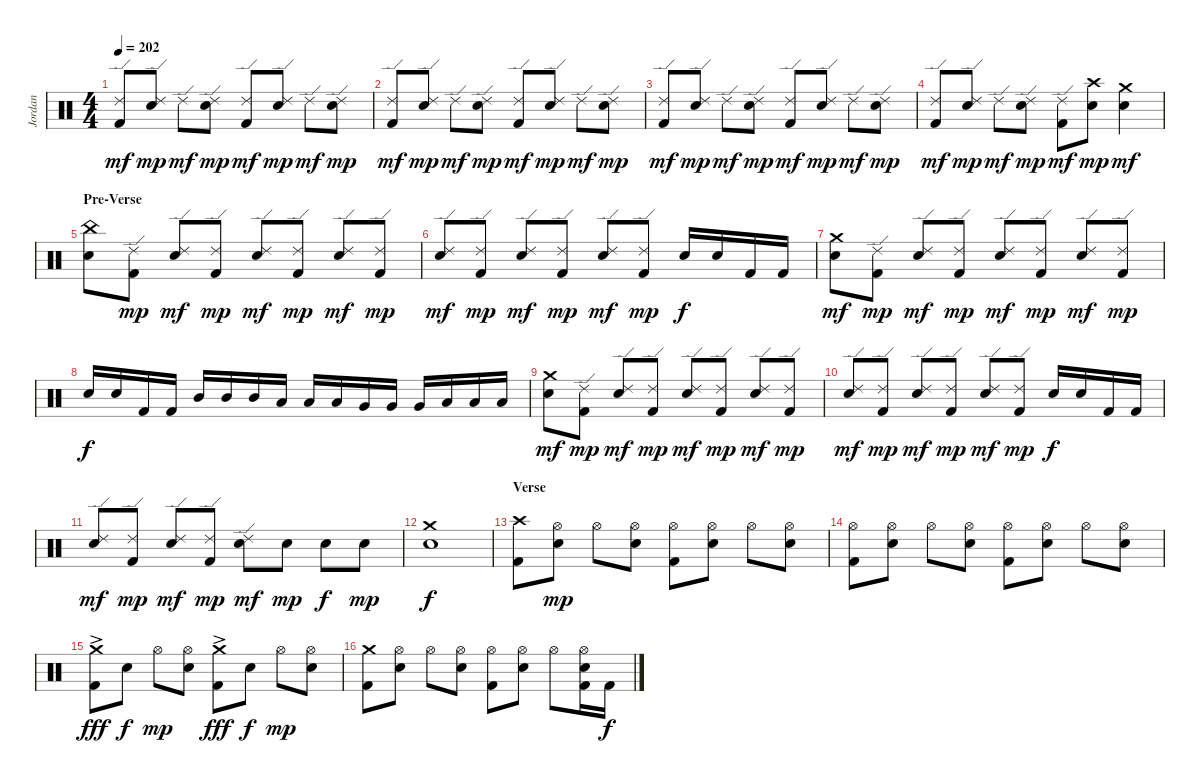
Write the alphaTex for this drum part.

\track ("Jordan" "Jordan") {instrument percussion}
\staff {score}
\articulation defaults
\ts (4 4)
\tempo 202
\clef neutral
\ks c
("Ride (edge) 2" "Kick (hit) 2").8{dy mf} ("Ride (edge) 2" "Electric Snare (hit)").8{dy mp} "Ride (edge) 2".8{dy mf} ("Ride (edge) 2" "Electric Snare (hit)").8{dy mp} ("Ride (edge) 2" "Kick (hit) 2").8{dy mf} ("Ride (edge) 2" "Electric Snare (hit)").8{dy mp} "Ride (edge) 2".8{dy mf} ("Ride (edge) 2" "Electric Snare (hit)").8{dy mp} |
("Ride (edge) 2" "Kick (hit) 2").8{dy mf} ("Ride (edge) 2" "Electric Snare (hit)").8{dy mp} "Ride (edge) 2".8{dy mf} ("Ride (edge) 2" "Electric Snare (hit)").8{dy mp} ("Ride (edge) 2" "Kick (hit) 2").8{dy mf} ("Ride (edge) 2" "Electric Snare (hit)").8{dy mp} "Ride (edge) 2".8{dy mf} ("Ride (edge) 2" "Electric Snare (hit)").8{dy mp} |
("Ride (edge) 2" "Kick (hit) 2").8{dy mf} ("Ride (edge) 2" "Electric Snare (hit)").8{dy mp} "Ride (edge) 2".8{dy mf} ("Ride (edge) 2" "Electric Snare (hit)").8{dy mp} ("Ride (edge) 2" "Kick (hit) 2").8{dy mf} ("Ride (edge) 2" "Electric Snare (hit)").8{dy mp} "Ride (edge) 2".8{dy mf} ("Ride (edge) 2" "Electric Snare (hit)").8{dy mp} |
("Ride (edge) 2" "Kick (hit) 2").8{dy mf} ("Ride (edge) 2" "Electric Snare (hit)").8{dy mp} "Ride (edge) 2".8{dy mf} ("Ride (edge) 2" "Electric Snare (hit)").8{dy mp} ("Ride (edge) 2" "Kick (hit) 2").8{dy mf} ("Crash high (hit)" "Electric Snare (hit)").8{dy mp} ("Crash medium (hit)" "Electric Snare (hit)").4{dy mf} |
\section ("" "Pre-Verse")
("China (hit)" "Electric Snare (hit)").8 ("Ride (edge) 2" "Kick (hit) 2").8{dy mp} ("Ride (edge) 2" "Electric Snare (hit)").8{dy mf} ("Ride (edge) 2" "Kick (hit) 2").8{dy mp} ("Ride (edge) 2" "Electric Snare (hit)").8{dy mf} ("Ride (edge) 2" "Kick (hit) 2").8{dy mp} ("Ride (edge) 2" "Electric Snare (hit)").8{dy mf} ("Ride (edge) 2" "Kick (hit) 2").8{dy mp} |
("Ride (edge) 2" "Electric Snare (hit)").8{dy mf} ("Ride (edge) 2" "Kick (hit) 2").8{dy mp} ("Ride (edge) 2" "Electric Snare (hit)").8{dy mf} ("Ride (edge) 2" "Kick (hit) 2").8{dy mp} ("Ride (edge) 2" "Electric Snare (hit)").8{dy mf} ("Ride (edge) 2" "Kick (hit) 2").8{dy mp} "Electric Snare (hit)".16{dy f} "Electric Snare (hit)".16 "Kick (hit) 2".16 "Kick (hit) 2".16 |
("Crash medium (hit)" "Electric Snare (hit)").8{dy mf} ("Ride (edge) 2" "Kick (hit) 2").8{dy mp} ("Ride (edge) 2" "Electric Snare (hit)").8{dy mf} ("Ride (edge) 2" "Kick (hit) 2").8{dy mp} ("Ride (edge) 2" "Electric Snare (hit)").8{dy mf} ("Ride (edge) 2" "Kick (hit) 2").8{dy mp} ("Ride (edge) 2" "Electric Snare (hit)").8{dy mf} ("Ride (edge) 2" "Kick (hit) 2").8{dy mp} |
"Electric Snare (hit)".16{dy f} "Electric Snare (hit)".16 "Kick (hit) 2".16 "Kick (hit) 2".16 "Mid Tom (hit)".16 "Mid Tom (hit)".16 "Mid Tom (hit)".16 "Low Tom (hit)".16 "Low Tom (hit)".16 "Low Tom (hit)".16 "Very Low Tom (hit)".16 "Very Low Tom (hit)".16 "Very Low Tom (hit)".16 "Low Floor Tom (hit)".16 "Low Floor Tom (hit)".16 "Low Floor Tom (hit)".16 |
("Crash medium (hit)" "Electric Snare (hit)").8{dy mf} ("Ride (edge) 2" "Kick (hit) 2").8{dy mp} ("Ride (edge) 2" "Electric Snare (hit)").8{dy mf} ("Ride (edge) 2" "Kick (hit) 2").8{dy mp} ("Ride (edge) 2" "Electric Snare (hit)").8{dy mf} ("Ride (edge) 2" "Kick (hit) 2").8{dy mp} ("Ride (edge) 2" "Electric Snare (hit)").8{dy mf} ("Ride (edge) 2" "Kick (hit) 2").8{dy mp} |
("Ride (edge) 2" "Electric Snare (hit)").8{dy mf} ("Ride (edge) 2" "Kick (hit) 2").8{dy mp} ("Ride (edge) 2" "Electric Snare (hit)").8{dy mf} ("Ride (edge) 2" "Kick (hit) 2").8{dy mp} ("Ride (edge) 2" "Electric Snare (hit)").8{dy mf} ("Ride (edge) 2" "Kick (hit) 2").8{dy mp} "Electric Snare (hit)".16{dy f} "Electric Snare (hit)".16 "Kick (hit) 2".16 "Kick (hit) 2".16 |
("Ride (edge) 2" "Electric Snare (hit)").8{dy mf} ("Ride (edge) 2" "Kick (hit) 2").8{dy mp} ("Ride (edge) 2" "Electric Snare (hit)").8{dy mf} ("Ride (edge) 2" "Kick (hit) 2").8{dy mp} ("Ride (edge) 2" "Electric Snare (hit)").8{dy mf} "Electric Snare (hit)".8{dy mp} "Electric Snare (hit)".8{dy f} "Electric Snare (hit)".8{dy mp} |
("Crash medium (hit)" "Electric Snare (hit)").1{dy f} |
\section ("" "Verse")
("Crash high (hit)" "Kick (hit) 2").8 ("Hi-Hat (open)" "Electric Snare (hit)").8{dy mp} "Hi-Hat (open)".8 ("Hi-Hat (open)" "Electric Snare (hit)").8 ("Hi-Hat (open)" "Kick (hit) 2").8 ("Hi-Hat (open)" "Electric Snare (hit)").8 "Hi-Hat (open)".8 ("Hi-Hat (open)" "Electric Snare (hit)").8 |
("Hi-Hat (open)" "Kick (hit) 2").8 ("Hi-Hat (open)" "Electric Snare (hit)").8 "Hi-Hat (open)".8 ("Hi-Hat (open)" "Electric Snare (hit)").8 ("Hi-Hat (open)" "Kick (hit) 2").8 ("Hi-Hat (open)" "Electric Snare (hit)").8 "Hi-Hat (open)".8 ("Hi-Hat (open)" "Electric Snare (hit)").8 |
("Crash medium (hit)" "Kick (hit) 2"{ac}).8{dy fff} "Electric Snare (hit)".8{dy f} "Hi-Hat (open)".8{dy mp} ("Hi-Hat (open)" "Electric Snare (hit)").8 ("Crash medium (hit)" "Kick (hit) 2"{ac}).8{dy fff} "Electric Snare (hit)".8{dy f} "Hi-Hat (open)".8{dy mp} ("Hi-Hat (open)" "Electric Snare (hit)").8 |
("Crash medium (hit)" "Kick (hit) 2").8 ("Hi-Hat (open)" "Electric Snare (hit)").8 "Hi-Hat (open)".8 ("Hi-Hat (open)" "Electric Snare (hit)").8 ("Hi-Hat (open)" "Kick (hit) 2").8 ("Hi-Hat (open)" "Electric Snare (hit)").8 "Hi-Hat (open)".8 ("Hi-Hat (open)" "Electric Snare (hit)" "Kick (hit) 2").16 "Kick (hit) 2".16{dy f}
